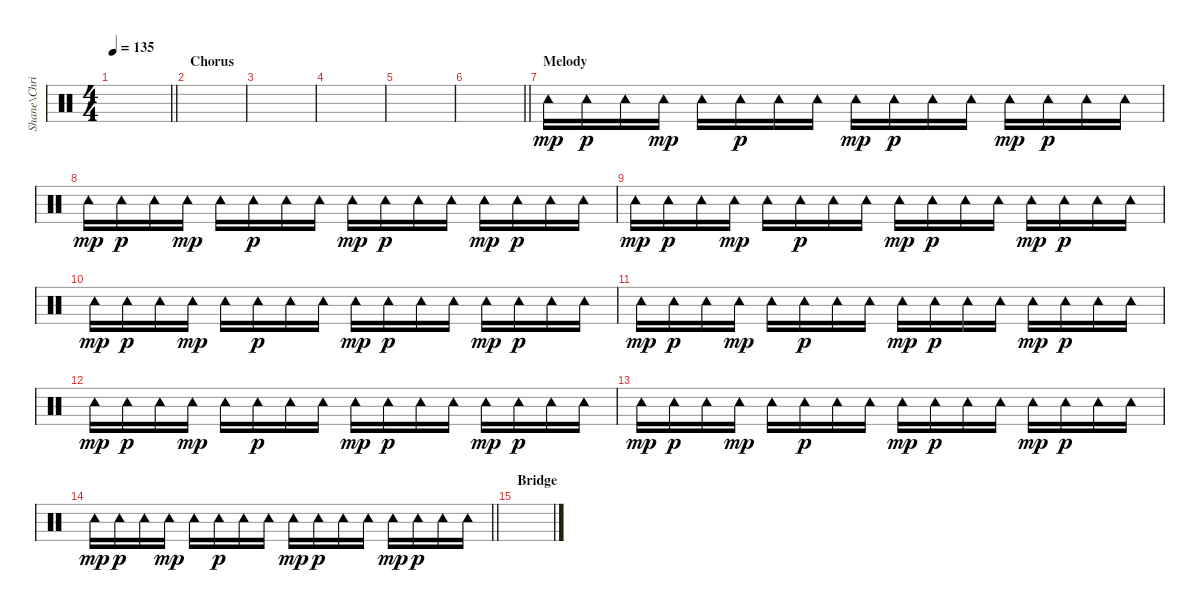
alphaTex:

\track ("Shane\\Chris - Percussion" "Shane\\Chri") {instrument percussion}
\staff {score}
\articulation defaults
\ts (4 4)
\tempo 135
\clef neutral
\barLineRight lightlight
\ks c
|
\section ("" "Chorus")
|
|
|
|
\barLineRight lightlight
|
\section ("" "Melody")
"Tambourine (hit)".16{dy mp} "Tambourine (hit)".16{dy p} "Tambourine (hit)".16 "Tambourine (hit)".16{dy mp} "Tambourine (hit)".16 "Tambourine (hit)".16{dy p} "Tambourine (hit)".16 "Tambourine (hit)".16 "Tambourine (hit)".16{dy mp} "Tambourine (hit)".16{dy p} "Tambourine (hit)".16 "Tambourine (hit)".16 "Tambourine (hit)".16{dy mp} "Tambourine (hit)".16{dy p} "Tambourine (hit)".16 "Tambourine (hit)".16 |
"Tambourine (hit)".16{dy mp} "Tambourine (hit)".16{dy p} "Tambourine (hit)".16 "Tambourine (hit)".16{dy mp} "Tambourine (hit)".16 "Tambourine (hit)".16{dy p} "Tambourine (hit)".16 "Tambourine (hit)".16 "Tambourine (hit)".16{dy mp} "Tambourine (hit)".16{dy p} "Tambourine (hit)".16 "Tambourine (hit)".16 "Tambourine (hit)".16{dy mp} "Tambourine (hit)".16{dy p} "Tambourine (hit)".16 "Tambourine (hit)".16 |
"Tambourine (hit)".16{dy mp} "Tambourine (hit)".16{dy p} "Tambourine (hit)".16 "Tambourine (hit)".16{dy mp} "Tambourine (hit)".16 "Tambourine (hit)".16{dy p} "Tambourine (hit)".16 "Tambourine (hit)".16 "Tambourine (hit)".16{dy mp} "Tambourine (hit)".16{dy p} "Tambourine (hit)".16 "Tambourine (hit)".16 "Tambourine (hit)".16{dy mp} "Tambourine (hit)".16{dy p} "Tambourine (hit)".16 "Tambourine (hit)".16 |
"Tambourine (hit)".16{dy mp} "Tambourine (hit)".16{dy p} "Tambourine (hit)".16 "Tambourine (hit)".16{dy mp} "Tambourine (hit)".16 "Tambourine (hit)".16{dy p} "Tambourine (hit)".16 "Tambourine (hit)".16 "Tambourine (hit)".16{dy mp} "Tambourine (hit)".16{dy p} "Tambourine (hit)".16 "Tambourine (hit)".16 "Tambourine (hit)".16{dy mp} "Tambourine (hit)".16{dy p} "Tambourine (hit)".16 "Tambourine (hit)".16 |
"Tambourine (hit)".16{dy mp} "Tambourine (hit)".16{dy p} "Tambourine (hit)".16 "Tambourine (hit)".16{dy mp} "Tambourine (hit)".16 "Tambourine (hit)".16{dy p} "Tambourine (hit)".16 "Tambourine (hit)".16 "Tambourine (hit)".16{dy mp} "Tambourine (hit)".16{dy p} "Tambourine (hit)".16 "Tambourine (hit)".16 "Tambourine (hit)".16{dy mp} "Tambourine (hit)".16{dy p} "Tambourine (hit)".16 "Tambourine (hit)".16 |
"Tambourine (hit)".16{dy mp} "Tambourine (hit)".16{dy p} "Tambourine (hit)".16 "Tambourine (hit)".16{dy mp} "Tambourine (hit)".16 "Tambourine (hit)".16{dy p} "Tambourine (hit)".16 "Tambourine (hit)".16 "Tambourine (hit)".16{dy mp} "Tambourine (hit)".16{dy p} "Tambourine (hit)".16 "Tambourine (hit)".16 "Tambourine (hit)".16{dy mp} "Tambourine (hit)".16{dy p} "Tambourine (hit)".16 "Tambourine (hit)".16 |
"Tambourine (hit)".16{dy mp} "Tambourine (hit)".16{dy p} "Tambourine (hit)".16 "Tambourine (hit)".16{dy mp} "Tambourine (hit)".16 "Tambourine (hit)".16{dy p} "Tambourine (hit)".16 "Tambourine (hit)".16 "Tambourine (hit)".16{dy mp} "Tambourine (hit)".16{dy p} "Tambourine (hit)".16 "Tambourine (hit)".16 "Tambourine (hit)".16{dy mp} "Tambourine (hit)".16{dy p} "Tambourine (hit)".16 "Tambourine (hit)".16 |
\barLineRight lightlight "Tambourine (hit)".16{dy mp} "Tambourine (hit)".16{dy p} "Tambourine (hit)".16 "Tambourine (hit)".16{dy mp} "Tambourine (hit)".16 "Tambourine (hit)".16{dy p} "Tambourine (hit)".16 "Tambourine (hit)".16 "Tambourine (hit)".16{dy mp} "Tambourine (hit)".16{dy p} "Tambourine (hit)".16 "Tambourine (hit)".16 "Tambourine (hit)".16{dy mp} "Tambourine (hit)".16{dy p} "Tambourine (hit)".16 "Tambourine (hit)".16
|
\section ("" "Bridge")
